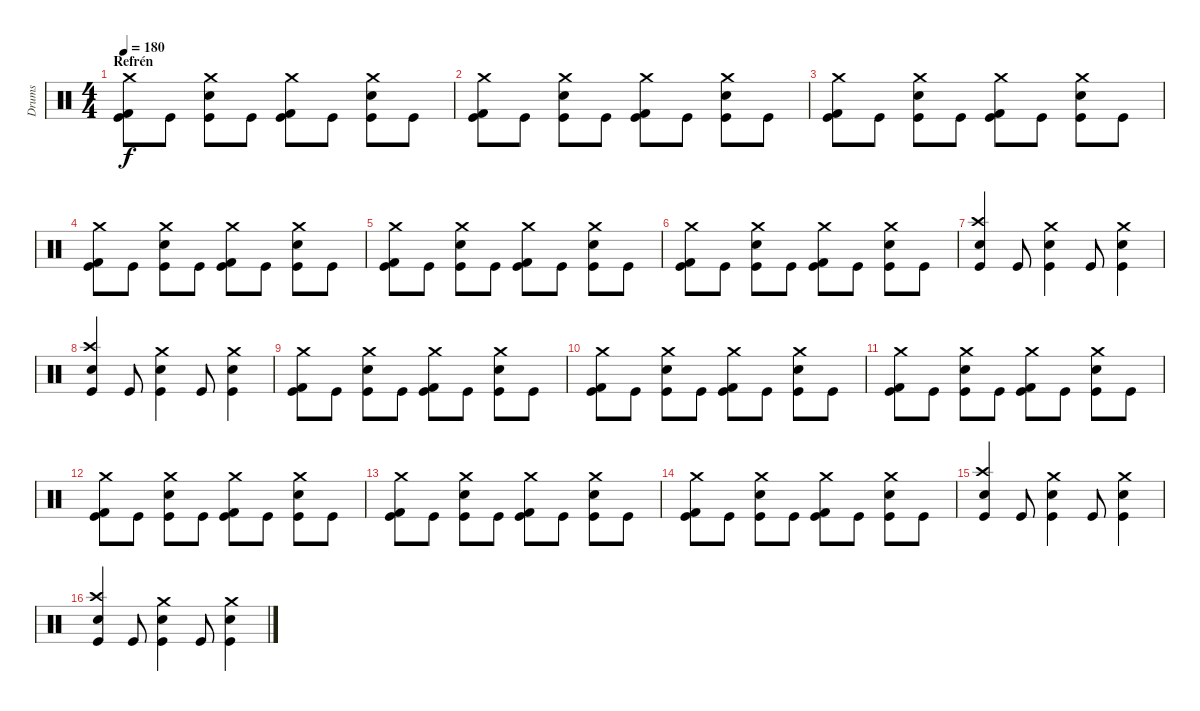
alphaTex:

\track ("Drums" "Drums") {instrument percussion}
\staff {score}
\articulation defaults
\ts (4 4)
\section ("" "Refrén")
\tempo 180
\clef neutral
\ks c
("Crash medium (hit)" "Kick (hit)" "Kick (hit) 2").8{dy f} "Kick (hit)".8 ("Crash medium (hit)" "Kick (hit)" "Electric Snare (hit)").8 "Kick (hit)".8 ("Crash medium (hit)" "Kick (hit)" "Kick (hit) 2").8 "Kick (hit)".8 ("Crash medium (hit)" "Kick (hit)" "Electric Snare (hit)").8 "Kick (hit)".8 |
("Crash medium (hit)" "Kick (hit)" "Kick (hit) 2").8 "Kick (hit)".8 ("Crash medium (hit)" "Kick (hit)" "Electric Snare (hit)").8 "Kick (hit)".8 ("Crash medium (hit)" "Kick (hit)" "Kick (hit) 2").8 "Kick (hit)".8 ("Crash medium (hit)" "Kick (hit)" "Electric Snare (hit)").8 "Kick (hit)".8 |
("Crash medium (hit)" "Kick (hit)" "Kick (hit) 2").8 "Kick (hit)".8 ("Crash medium (hit)" "Kick (hit)" "Electric Snare (hit)").8 "Kick (hit)".8 ("Crash medium (hit)" "Kick (hit)" "Kick (hit) 2").8 "Kick (hit)".8 ("Crash medium (hit)" "Kick (hit)" "Electric Snare (hit)").8 "Kick (hit)".8 |
("Crash medium (hit)" "Kick (hit)" "Kick (hit) 2").8 "Kick (hit)".8 ("Crash medium (hit)" "Kick (hit)" "Electric Snare (hit)").8 "Kick (hit)".8 ("Crash medium (hit)" "Kick (hit)" "Kick (hit) 2").8 "Kick (hit)".8 ("Crash medium (hit)" "Kick (hit)" "Electric Snare (hit)").8 "Kick (hit)".8 |
("Crash medium (hit)" "Kick (hit)" "Kick (hit) 2").8 "Kick (hit)".8 ("Crash medium (hit)" "Kick (hit)" "Electric Snare (hit)").8 "Kick (hit)".8 ("Crash medium (hit)" "Kick (hit)" "Kick (hit) 2").8 "Kick (hit)".8 ("Crash medium (hit)" "Kick (hit)" "Electric Snare (hit)").8 "Kick (hit)".8 |
("Crash medium (hit)" "Kick (hit)" "Kick (hit) 2").8 "Kick (hit)".8 ("Crash medium (hit)" "Kick (hit)" "Electric Snare (hit)").8 "Kick (hit)".8 ("Crash medium (hit)" "Kick (hit)" "Kick (hit) 2").8 "Kick (hit)".8 ("Crash medium (hit)" "Kick (hit)" "Electric Snare (hit)").8 "Kick (hit)".8 |
("Crash high (hit)" "Kick (hit)" "Snare (hit) 2").4 "Kick (hit)".8 ("Crash medium (hit)" "Kick (hit)" "Snare (hit) 2").4 "Kick (hit)".8 ("Crash medium (hit)" "Kick (hit)" "Snare (hit) 2").4 |
("Crash high (hit)" "Kick (hit)" "Snare (hit) 2").4 "Kick (hit)".8 ("Crash medium (hit)" "Kick (hit)" "Snare (hit) 2").4 "Kick (hit)".8 ("Crash medium (hit)" "Kick (hit)" "Snare (hit) 2").4 |
("Crash medium (hit)" "Kick (hit)" "Kick (hit) 2").8 "Kick (hit)".8 ("Crash medium (hit)" "Kick (hit)" "Electric Snare (hit)").8 "Kick (hit)".8 ("Crash medium (hit)" "Kick (hit)" "Kick (hit) 2").8 "Kick (hit)".8 ("Crash medium (hit)" "Kick (hit)" "Electric Snare (hit)").8 "Kick (hit)".8 |
("Crash medium (hit)" "Kick (hit)" "Kick (hit) 2").8 "Kick (hit)".8 ("Crash medium (hit)" "Kick (hit)" "Electric Snare (hit)").8 "Kick (hit)".8 ("Crash medium (hit)" "Kick (hit)" "Kick (hit) 2").8 "Kick (hit)".8 ("Crash medium (hit)" "Kick (hit)" "Electric Snare (hit)").8 "Kick (hit)".8 |
("Crash medium (hit)" "Kick (hit)" "Kick (hit) 2").8 "Kick (hit)".8 ("Crash medium (hit)" "Kick (hit)" "Electric Snare (hit)").8 "Kick (hit)".8 ("Crash medium (hit)" "Kick (hit)" "Kick (hit) 2").8 "Kick (hit)".8 ("Crash medium (hit)" "Kick (hit)" "Electric Snare (hit)").8 "Kick (hit)".8 |
("Crash medium (hit)" "Kick (hit)" "Kick (hit) 2").8 "Kick (hit)".8 ("Crash medium (hit)" "Kick (hit)" "Electric Snare (hit)").8 "Kick (hit)".8 ("Crash medium (hit)" "Kick (hit)" "Kick (hit) 2").8 "Kick (hit)".8 ("Crash medium (hit)" "Kick (hit)" "Electric Snare (hit)").8 "Kick (hit)".8 |
("Crash medium (hit)" "Kick (hit)" "Kick (hit) 2").8 "Kick (hit)".8 ("Crash medium (hit)" "Kick (hit)" "Electric Snare (hit)").8 "Kick (hit)".8 ("Crash medium (hit)" "Kick (hit)" "Kick (hit) 2").8 "Kick (hit)".8 ("Crash medium (hit)" "Kick (hit)" "Electric Snare (hit)").8 "Kick (hit)".8 |
("Crash medium (hit)" "Kick (hit)" "Kick (hit) 2").8 "Kick (hit)".8 ("Crash medium (hit)" "Kick (hit)" "Electric Snare (hit)").8 "Kick (hit)".8 ("Crash medium (hit)" "Kick (hit)" "Kick (hit) 2").8 "Kick (hit)".8 ("Crash medium (hit)" "Kick (hit)" "Electric Snare (hit)").8 "Kick (hit)".8 |
("Crash high (hit)" "Kick (hit)" "Snare (hit) 2").4 "Kick (hit)".8 ("Crash medium (hit)" "Kick (hit)" "Snare (hit) 2").4 "Kick (hit)".8 ("Crash medium (hit)" "Kick (hit)" "Snare (hit) 2").4 |
("Crash high (hit)" "Kick (hit)" "Snare (hit) 2").4 "Kick (hit)".8 ("Crash medium (hit)" "Kick (hit)" "Snare (hit) 2").4 "Kick (hit)".8 ("Crash medium (hit)" "Kick (hit)" "Snare (hit) 2").4
